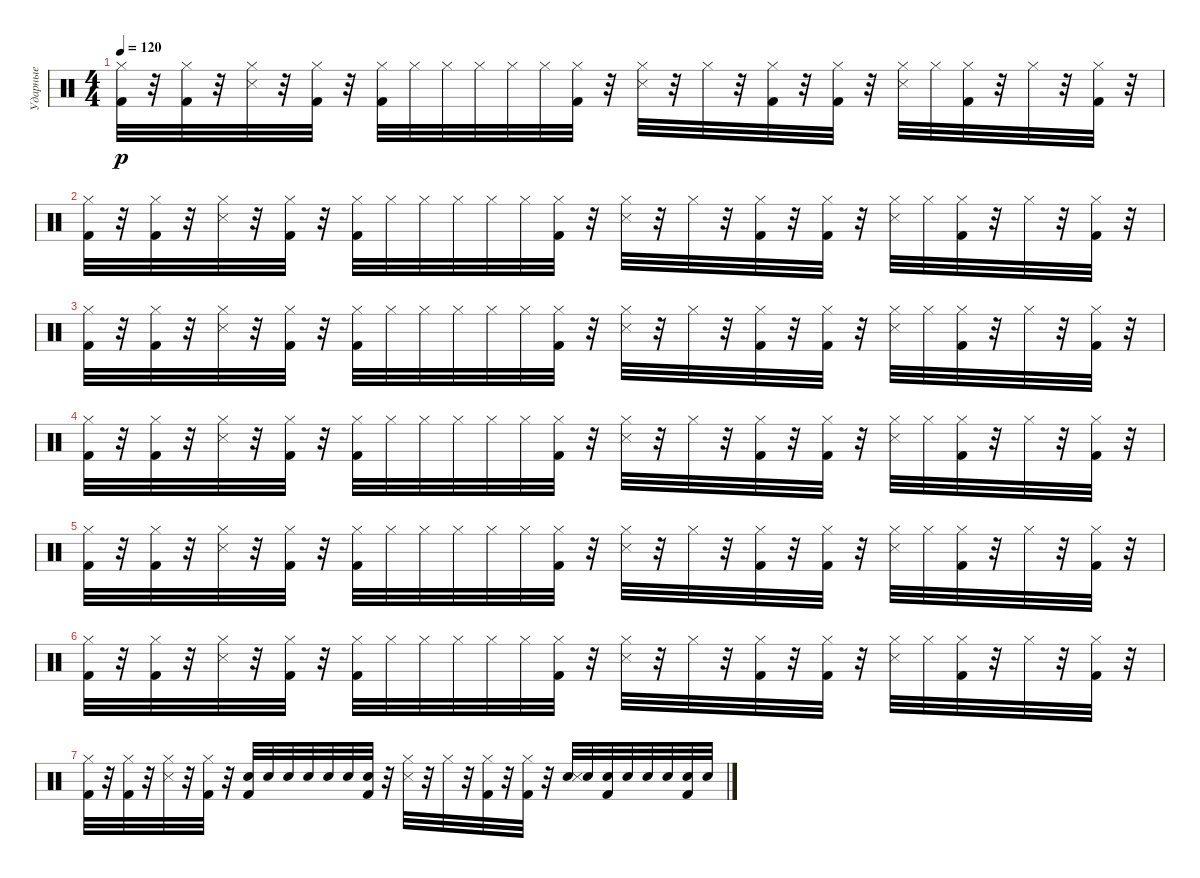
\track ("Ударные" "Ударные") {instrument percussion}
\staff {score}
\articulation defaults
\ts (4 4)
\tempo 120
\clef neutral
\ks c
("Hi-Hat (closed)" "Kick (hit) 2").32{dy p} r.32 ("Hi-Hat (closed)" "Kick (hit) 2").32 r.32 ("Hi-Hat (closed)" "Metronome (hit)").32 r.32 ("Hi-Hat (closed)" "Kick (hit) 2").32 r.32 ("Hi-Hat (closed)" "Kick (hit) 2").32 "Hi-Hat (closed)".32 "Hi-Hat (closed)".32 "Hi-Hat (closed)".32 "Hi-Hat (closed)".32 "Hi-Hat (closed)".32 ("Hi-Hat (closed)" "Kick (hit) 2").32 r.32 ("Hi-Hat (closed)" "Metronome (hit)").32 r.32 "Hi-Hat (closed)".32 r.32 ("Hi-Hat (closed)" "Kick (hit) 2").32 r.32 ("Hi-Hat (closed)" "Kick (hit) 2").32 r.32 ("Hi-Hat (closed)" "Metronome (hit)").32 "Hi-Hat (closed)".32 ("Hi-Hat (closed)" "Kick (hit) 2").32 r.32 "Hi-Hat (closed)".32 r.32 ("Hi-Hat (closed)" "Kick (hit) 2").32 r.32 |
("Hi-Hat (closed)" "Kick (hit) 2").32 r.32 ("Hi-Hat (closed)" "Kick (hit) 2").32 r.32 ("Hi-Hat (closed)" "Metronome (hit)").32 r.32 ("Hi-Hat (closed)" "Kick (hit) 2").32 r.32 ("Hi-Hat (closed)" "Kick (hit) 2").32 "Hi-Hat (closed)".32 "Hi-Hat (closed)".32 "Hi-Hat (closed)".32 "Hi-Hat (closed)".32 "Hi-Hat (closed)".32 ("Hi-Hat (closed)" "Kick (hit) 2").32 r.32 ("Hi-Hat (closed)" "Metronome (hit)").32 r.32 "Hi-Hat (closed)".32 r.32 ("Hi-Hat (closed)" "Kick (hit) 2").32 r.32 ("Hi-Hat (closed)" "Kick (hit) 2").32 r.32 ("Hi-Hat (closed)" "Metronome (hit)").32 "Hi-Hat (closed)".32 ("Hi-Hat (closed)" "Kick (hit) 2").32 r.32 "Hi-Hat (closed)".32 r.32 ("Hi-Hat (closed)" "Kick (hit) 2").32 r.32 |
("Hi-Hat (closed)" "Kick (hit) 2").32 r.32 ("Hi-Hat (closed)" "Kick (hit) 2").32 r.32 ("Hi-Hat (closed)" "Metronome (hit)").32 r.32 ("Hi-Hat (closed)" "Kick (hit) 2").32 r.32 ("Hi-Hat (closed)" "Kick (hit) 2").32 "Hi-Hat (closed)".32 "Hi-Hat (closed)".32 "Hi-Hat (closed)".32 "Hi-Hat (closed)".32 "Hi-Hat (closed)".32 ("Hi-Hat (closed)" "Kick (hit) 2").32 r.32 ("Hi-Hat (closed)" "Metronome (hit)").32 r.32 "Hi-Hat (closed)".32 r.32 ("Hi-Hat (closed)" "Kick (hit) 2").32 r.32 ("Hi-Hat (closed)" "Kick (hit) 2").32 r.32 ("Hi-Hat (closed)" "Metronome (hit)").32 "Hi-Hat (closed)".32 ("Hi-Hat (closed)" "Kick (hit) 2").32 r.32 "Hi-Hat (closed)".32 r.32 ("Hi-Hat (closed)" "Kick (hit) 2").32 r.32 |
("Hi-Hat (closed)" "Kick (hit) 2").32 r.32 ("Hi-Hat (closed)" "Kick (hit) 2").32 r.32 ("Hi-Hat (closed)" "Metronome (hit)").32 r.32 ("Hi-Hat (closed)" "Kick (hit) 2").32 r.32 ("Hi-Hat (closed)" "Kick (hit) 2").32 "Hi-Hat (closed)".32 "Hi-Hat (closed)".32 "Hi-Hat (closed)".32 "Hi-Hat (closed)".32 "Hi-Hat (closed)".32 ("Hi-Hat (closed)" "Kick (hit) 2").32 r.32 ("Hi-Hat (closed)" "Metronome (hit)").32 r.32 "Hi-Hat (closed)".32 r.32 ("Hi-Hat (closed)" "Kick (hit) 2").32 r.32 ("Hi-Hat (closed)" "Kick (hit) 2").32 r.32 ("Hi-Hat (closed)" "Metronome (hit)").32 "Hi-Hat (closed)".32 ("Hi-Hat (closed)" "Kick (hit) 2").32 r.32 "Hi-Hat (closed)".32 r.32 ("Hi-Hat (closed)" "Kick (hit) 2").32 r.32 |
("Hi-Hat (closed)" "Kick (hit) 2").32 r.32 ("Hi-Hat (closed)" "Kick (hit) 2").32 r.32 ("Hi-Hat (closed)" "Metronome (hit)").32 r.32 ("Hi-Hat (closed)" "Kick (hit) 2").32 r.32 ("Hi-Hat (closed)" "Kick (hit) 2").32 "Hi-Hat (closed)".32 "Hi-Hat (closed)".32 "Hi-Hat (closed)".32 "Hi-Hat (closed)".32 "Hi-Hat (closed)".32 ("Hi-Hat (closed)" "Kick (hit) 2").32 r.32 ("Hi-Hat (closed)" "Metronome (hit)").32 r.32 "Hi-Hat (closed)".32 r.32 ("Hi-Hat (closed)" "Kick (hit) 2").32 r.32 ("Hi-Hat (closed)" "Kick (hit) 2").32 r.32 ("Hi-Hat (closed)" "Metronome (hit)").32 "Hi-Hat (closed)".32 ("Hi-Hat (closed)" "Kick (hit) 2").32 r.32 "Hi-Hat (closed)".32 r.32 ("Hi-Hat (closed)" "Kick (hit) 2").32 r.32 |
("Hi-Hat (closed)" "Kick (hit) 2").32 r.32 ("Hi-Hat (closed)" "Kick (hit) 2").32 r.32 ("Hi-Hat (closed)" "Metronome (hit)").32 r.32 ("Hi-Hat (closed)" "Kick (hit) 2").32 r.32 ("Hi-Hat (closed)" "Kick (hit) 2").32 "Hi-Hat (closed)".32 "Hi-Hat (closed)".32 "Hi-Hat (closed)".32 "Hi-Hat (closed)".32 "Hi-Hat (closed)".32 ("Hi-Hat (closed)" "Kick (hit) 2").32 r.32 ("Hi-Hat (closed)" "Metronome (hit)").32 r.32 "Hi-Hat (closed)".32 r.32 ("Hi-Hat (closed)" "Kick (hit) 2").32 r.32 ("Hi-Hat (closed)" "Kick (hit) 2").32 r.32 ("Hi-Hat (closed)" "Metronome (hit)").32 "Hi-Hat (closed)".32 ("Hi-Hat (closed)" "Kick (hit) 2").32 r.32 "Hi-Hat (closed)".32 r.32 ("Hi-Hat (closed)" "Kick (hit) 2").32 r.32 |
("Hi-Hat (closed)" "Kick (hit) 2").32 r.32 ("Hi-Hat (closed)" "Kick (hit) 2").32 r.32 ("Hi-Hat (closed)" "Metronome (hit)").32 r.32 ("Hi-Hat (closed)" "Kick (hit) 2").32 r.32 ("Electric Snare (hit)" "Kick (hit) 2").32 "Electric Snare (hit)".32 "Electric Snare (hit)".32 "Electric Snare (hit)".32 "Electric Snare (hit)".32 "Electric Snare (hit)".32 ("Electric Snare (hit)" "Kick (hit) 2").32 r.32 ("Hi-Hat (closed)" "Metronome (hit)").32 r.32 "Hi-Hat (closed)".32 r.32 ("Hi-Hat (closed)" "Kick (hit) 2").32 r.32 ("Hi-Hat (closed)" "Kick (hit) 2").32 r.32 ("Electric Snare (hit)" "Metronome (hit)").32 "Electric Snare (hit)".32 ("Electric Snare (hit)" "Kick (hit) 2").32 "Electric Snare (hit)".32 "Electric Snare (hit)".32 "Electric Snare (hit)".32 ("Electric Snare (hit)" "Kick (hit) 2").32 "Electric Snare (hit)".32
